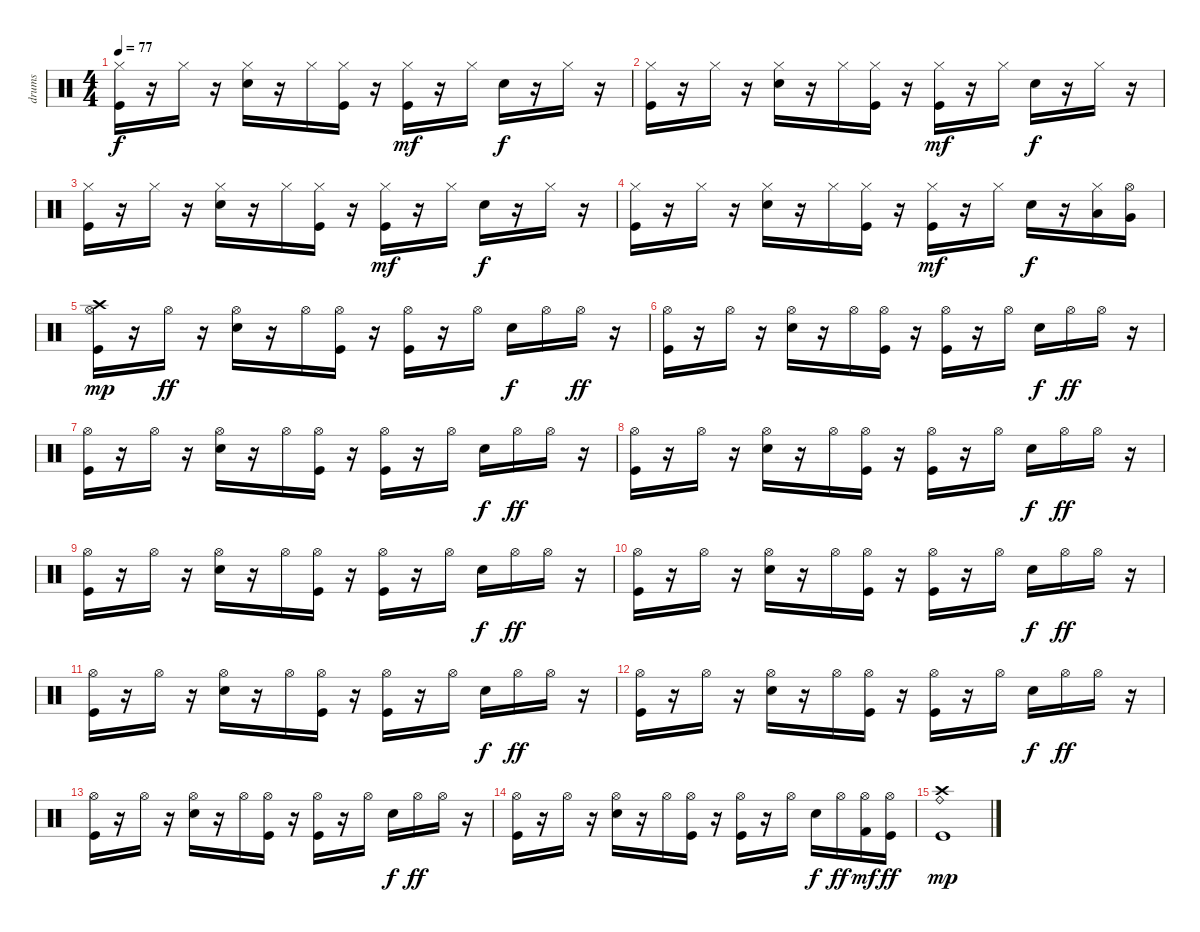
\track ("drums" "drums") {instrument percussion}
\staff {score}
\articulation defaults
\ts (4 4)
\tempo 77
\clef neutral
\ks c
("Hi-Hat (closed)" "Kick (hit)").16{dy f} r.16 "Hi-Hat (closed)".16 r.16 ("Snare (hit) 2" "Hi-Hat (closed)").16 r.16 "Hi-Hat (closed)".16 ("Kick (hit)" "Hi-Hat (closed)").16 r.16 ("Kick (hit)" "Hi-Hat (closed)").16{dy mf} r.16 "Hi-Hat (closed)".16 "Snare (hit) 2".16{dy f} r.16 "Hi-Hat (closed)".16 r.16 |
("Hi-Hat (closed)" "Kick (hit)").16 r.16 "Hi-Hat (closed)".16 r.16 ("Snare (hit) 2" "Hi-Hat (closed)").16 r.16 "Hi-Hat (closed)".16 ("Kick (hit)" "Hi-Hat (closed)").16 r.16 ("Kick (hit)" "Hi-Hat (closed)").16{dy mf} r.16 "Hi-Hat (closed)".16 "Snare (hit) 2".16{dy f} r.16 "Hi-Hat (closed)".16 r.16 |
("Hi-Hat (closed)" "Kick (hit)").16 r.16 "Hi-Hat (closed)".16 r.16 ("Snare (hit) 2" "Hi-Hat (closed)").16 r.16 "Hi-Hat (closed)".16 ("Kick (hit)" "Hi-Hat (closed)").16 r.16 ("Kick (hit)" "Hi-Hat (closed)").16{dy mf} r.16 "Hi-Hat (closed)".16 "Snare (hit) 2".16{dy f} r.16 "Hi-Hat (closed)".16 r.16 |
("Hi-Hat (closed)" "Kick (hit)").16 r.16 "Hi-Hat (closed)".16 r.16 ("Snare (hit) 2" "Hi-Hat (closed)").16 r.16 "Hi-Hat (closed)".16 ("Kick (hit)" "Hi-Hat (closed)").16 r.16 ("Kick (hit)" "Hi-Hat (closed)").16{dy mf} r.16 "Hi-Hat (closed)".16 "Snare (hit) 2".16{dy f} r.16 ("Hi-Hat (closed)" "Low Floor Tom (hit)").16 ("Hi-Hat (open)" "Very Low Tom (hit)").16 |
("Crash high (hit)" "Kick (hit)" "Hi-Hat (open)").16{dy mp} r.16 "Hi-Hat (open)".16{dy ff} r.16 ("Snare (hit) 2" "Hi-Hat (open)").16 r.16 "Hi-Hat (open)".16 ("Kick (hit)" "Hi-Hat (open)").16 r.16 ("Kick (hit)" "Hi-Hat (open)").16 r.16 "Hi-Hat (open)".16 "Snare (hit) 2".16{dy f} "Hi-Hat (open)".16 "Hi-Hat (open)".16{dy ff} r.16 |
("Kick (hit)" "Hi-Hat (open)").16 r.16 "Hi-Hat (open)".16 r.16 ("Snare (hit) 2" "Hi-Hat (open)").16 r.16 "Hi-Hat (open)".16 ("Kick (hit)" "Hi-Hat (open)").16 r.16 ("Kick (hit)" "Hi-Hat (open)").16 r.16 "Hi-Hat (open)".16 "Snare (hit) 2".16{dy f} "Hi-Hat (open)".16{dy ff} "Hi-Hat (open)".16 r.16 |
("Kick (hit)" "Hi-Hat (open)").16 r.16 "Hi-Hat (open)".16 r.16 ("Snare (hit) 2" "Hi-Hat (open)").16 r.16 "Hi-Hat (open)".16 ("Kick (hit)" "Hi-Hat (open)").16 r.16 ("Kick (hit)" "Hi-Hat (open)").16 r.16 "Hi-Hat (open)".16 "Snare (hit) 2".16{dy f} "Hi-Hat (open)".16{dy ff} "Hi-Hat (open)".16 r.16 |
("Kick (hit)" "Hi-Hat (open)").16 r.16 "Hi-Hat (open)".16 r.16 ("Snare (hit) 2" "Hi-Hat (open)").16 r.16 "Hi-Hat (open)".16 ("Kick (hit)" "Hi-Hat (open)").16 r.16 ("Kick (hit)" "Hi-Hat (open)").16 r.16 "Hi-Hat (open)".16 "Snare (hit) 2".16{dy f} "Hi-Hat (open)".16{dy ff} "Hi-Hat (open)".16 r.16 |
("Kick (hit)" "Hi-Hat (open)").16 r.16 "Hi-Hat (open)".16 r.16 ("Snare (hit) 2" "Hi-Hat (open)").16 r.16 "Hi-Hat (open)".16 ("Kick (hit)" "Hi-Hat (open)").16 r.16 ("Kick (hit)" "Hi-Hat (open)").16 r.16 "Hi-Hat (open)".16 "Snare (hit) 2".16{dy f} "Hi-Hat (open)".16{dy ff} "Hi-Hat (open)".16 r.16 |
("Kick (hit)" "Hi-Hat (open)").16 r.16 "Hi-Hat (open)".16 r.16 ("Snare (hit) 2" "Hi-Hat (open)").16 r.16 "Hi-Hat (open)".16 ("Kick (hit)" "Hi-Hat (open)").16 r.16 ("Kick (hit)" "Hi-Hat (open)").16 r.16 "Hi-Hat (open)".16 "Snare (hit) 2".16{dy f} "Hi-Hat (open)".16{dy ff} "Hi-Hat (open)".16 r.16 |
("Kick (hit)" "Hi-Hat (open)").16 r.16 "Hi-Hat (open)".16 r.16 ("Snare (hit) 2" "Hi-Hat (open)").16 r.16 "Hi-Hat (open)".16 ("Kick (hit)" "Hi-Hat (open)").16 r.16 ("Kick (hit)" "Hi-Hat (open)").16 r.16 "Hi-Hat (open)".16 "Snare (hit) 2".16{dy f} "Hi-Hat (open)".16{dy ff} "Hi-Hat (open)".16 r.16 |
("Kick (hit)" "Hi-Hat (open)").16 r.16 "Hi-Hat (open)".16 r.16 ("Snare (hit) 2" "Hi-Hat (open)").16 r.16 "Hi-Hat (open)".16 ("Kick (hit)" "Hi-Hat (open)").16 r.16 ("Kick (hit)" "Hi-Hat (open)").16 r.16 "Hi-Hat (open)".16 "Snare (hit) 2".16{dy f} "Hi-Hat (open)".16{dy ff} "Hi-Hat (open)".16 r.16 |
("Kick (hit)" "Hi-Hat (open)").16 r.16 "Hi-Hat (open)".16 r.16 ("Snare (hit) 2" "Hi-Hat (open)").16 r.16 "Hi-Hat (open)".16 ("Kick (hit)" "Hi-Hat (open)").16 r.16 ("Kick (hit)" "Hi-Hat (open)").16 r.16 "Hi-Hat (open)".16 "Snare (hit) 2".16{dy f} "Hi-Hat (open)".16{dy ff} "Hi-Hat (open)".16 r.16 |
("Kick (hit)" "Hi-Hat (open)").16 r.16 "Hi-Hat (open)".16 r.16 ("Snare (hit) 2" "Hi-Hat (open)").16 r.16 "Hi-Hat (open)".16 ("Kick (hit)" "Hi-Hat (open)").16 r.16 ("Kick (hit)" "Hi-Hat (open)").16 r.16 "Hi-Hat (open)".16 "Snare (hit) 2".16{dy f} "Hi-Hat (open)".16{dy ff} ("Hi-Hat (open)" "Kick (hit) 2").16{dy mf} ("Hi-Hat (open)" "Kick (hit)").16{dy ff} |
("Crash high (hit)" "Kick (hit)" "Ride (bell)").1{dy mp}
